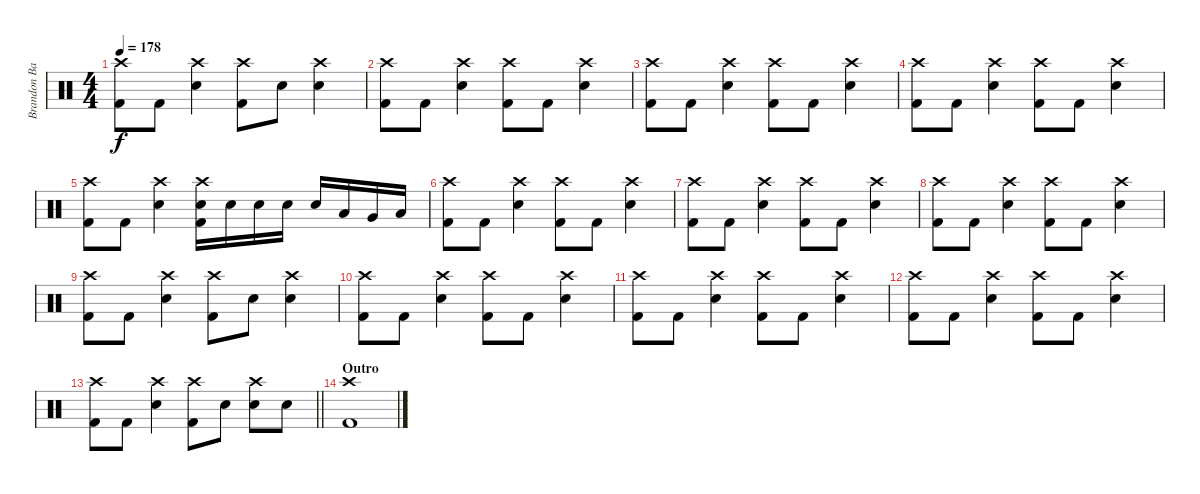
\track ("Brandon Barnes - Drums" "Brandon Ba") {instrument percussion}
\staff {score}
\articulation defaults
\ts (4 4)
\tempo 178
\clef neutral
\ks c
("Crash high (hit)" "Kick (hit) 2").8{dy f} "Kick (hit) 2".8 ("Snare (hit) 2" "Crash high (hit)").4 ("Crash high (hit)" "Kick (hit) 2").8 "Snare (hit) 2".8 ("Snare (hit) 2" "Crash high (hit)").4 |
("Crash high (hit)" "Kick (hit) 2").8 "Kick (hit) 2".8 ("Snare (hit) 2" "Crash high (hit)").4 ("Crash high (hit)" "Kick (hit) 2").8 "Kick (hit) 2".8 ("Snare (hit) 2" "Crash high (hit)").4 |
("Crash high (hit)" "Kick (hit) 2").8 "Kick (hit) 2".8 ("Snare (hit) 2" "Crash high (hit)").4 ("Crash high (hit)" "Kick (hit) 2").8 "Kick (hit) 2".8 ("Snare (hit) 2" "Crash high (hit)").4 |
("Crash high (hit)" "Kick (hit) 2").8 "Kick (hit) 2".8 ("Snare (hit) 2" "Crash high (hit)").4 ("Crash high (hit)" "Kick (hit) 2").8 "Kick (hit) 2".8 ("Snare (hit) 2" "Crash high (hit)").4 |
("Crash high (hit)" "Kick (hit) 2").8 "Kick (hit) 2".8 ("Snare (hit) 2" "Crash high (hit)").4 ("Crash high (hit)" "Kick (hit) 2" "Snare (hit) 2").16 "Snare (hit) 2".16 "Snare (hit) 2".16 "Snare (hit) 2".16 "Snare (hit) 2".16 "Low Tom (hit)".16 "Very Low Tom (hit)".16 "Low Floor Tom (hit)".16 |
("Crash high (hit)" "Kick (hit) 2").8 "Kick (hit) 2".8 ("Snare (hit) 2" "Crash high (hit)").4 ("Crash high (hit)" "Kick (hit) 2").8 "Kick (hit) 2".8 ("Snare (hit) 2" "Crash high (hit)").4 |
("Crash high (hit)" "Kick (hit) 2").8 "Kick (hit) 2".8 ("Snare (hit) 2" "Crash high (hit)").4 ("Crash high (hit)" "Kick (hit) 2").8 "Kick (hit) 2".8 ("Snare (hit) 2" "Crash high (hit)").4 |
("Crash high (hit)" "Kick (hit) 2").8 "Kick (hit) 2".8 ("Snare (hit) 2" "Crash high (hit)").4 ("Crash high (hit)" "Kick (hit) 2").8 "Kick (hit) 2".8 ("Snare (hit) 2" "Crash high (hit)").4 |
("Crash high (hit)" "Kick (hit) 2").8 "Kick (hit) 2".8 ("Snare (hit) 2" "Crash high (hit)").4 ("Crash high (hit)" "Kick (hit) 2").8 "Snare (hit) 2".8 ("Snare (hit) 2" "Crash high (hit)").4 |
("Crash high (hit)" "Kick (hit) 2").8 "Kick (hit) 2".8 ("Snare (hit) 2" "Crash high (hit)").4 ("Crash high (hit)" "Kick (hit) 2").8 "Kick (hit) 2".8 ("Snare (hit) 2" "Crash high (hit)").4 |
("Crash high (hit)" "Kick (hit) 2").8 "Kick (hit) 2".8 ("Snare (hit) 2" "Crash high (hit)").4 ("Crash high (hit)" "Kick (hit) 2").8 "Kick (hit) 2".8 ("Snare (hit) 2" "Crash high (hit)").4 |
("Crash high (hit)" "Kick (hit) 2").8 "Kick (hit) 2".8 ("Snare (hit) 2" "Crash high (hit)").4 ("Crash high (hit)" "Kick (hit) 2").8 "Kick (hit) 2".8 ("Snare (hit) 2" "Crash high (hit)").4 |
\barLineRight lightlight
("Crash high (hit)" "Kick (hit) 2").8 "Kick (hit) 2".8 ("Snare (hit) 2" "Crash high (hit)").4 ("Crash high (hit)" "Kick (hit) 2").8 "Snare (hit) 2".8 ("Snare (hit) 2" "Crash high (hit)").8 "Snare (hit) 2".8 |
\section ("" "Outro")
("Crash high (hit)" "Kick (hit) 2").1
